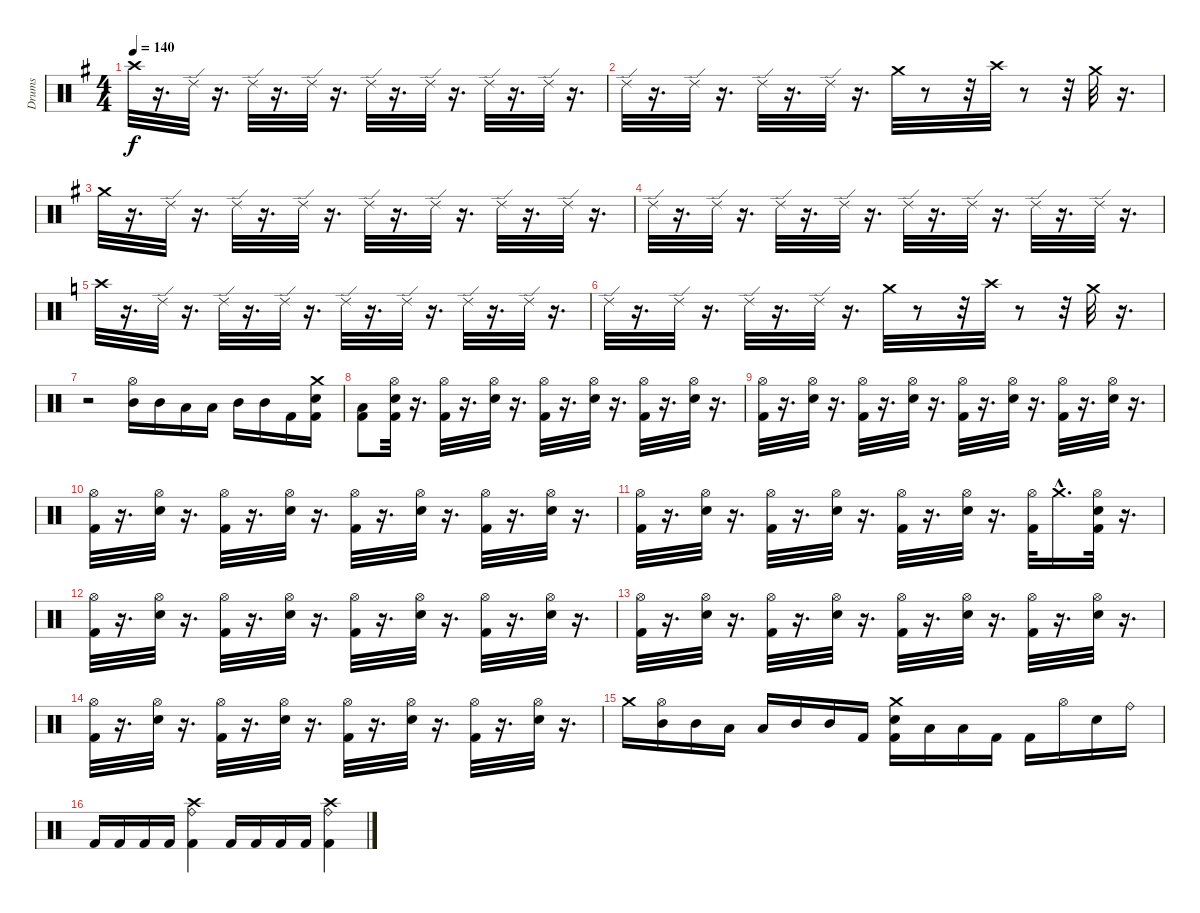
\track ("Drums" "Drums") {instrument percussion}
\staff {score}
\articulation defaults
\ts (4 4)
\tempo 140
\clef neutral
\ks eminor "Crash high (hit)".32{dy f}
r.16{d} "Ride (edge) 2".32 r.16{d} "Ride (edge) 2".32 r.16{d} "Ride (edge) 2".32 r.16{d} "Ride (edge) 2".32 r.16{d} "Ride (edge) 2".32 r.16{d} "Ride (edge) 2".32 r.16{d} "Ride (edge) 2".32 r.16{d} |
"Ride (edge) 2".32 r.16{d} "Ride (edge) 2".32 r.16{d} "Ride (edge) 2".32 r.16{d} "Ride (edge) 2".32 r.16{d} "Crash medium (hit)".32 r.8 r.32 "Crash high (hit)".32 r.8 r.32 "Crash medium (hit)".32 r.16{d} |
"Crash medium (hit)".32 r.16{d} "Ride (edge) 2".32 r.16{d} "Ride (edge) 2".32 r.16{d} "Ride (edge) 2".32 r.16{d} "Ride (edge) 2".32 r.16{d} "Ride (edge) 2".32 r.16{d} "Ride (edge) 2".32 r.16{d} "Ride (edge) 2".32 r.16{d} |
"Ride (edge) 2".32 r.16{d} "Ride (edge) 2".32 r.16{d} "Ride (edge) 2".32 r.16{d} "Ride (edge) 2".32 r.16{d} "Ride (edge) 2".32 r.16{d} "Ride (edge) 2".32 r.16{d} "Ride (edge) 2".32 r.16{d} "Ride (edge) 2".32 r.16{d} |
\ks c "Crash high (hit)".32
r.16{d} "Ride (edge) 2".32 r.16{d} "Ride (edge) 2".32 r.16{d} "Ride (edge) 2".32 r.16{d} "Ride (edge) 2".32 r.16{d} "Ride (edge) 2".32 r.16{d} "Ride (edge) 2".32 r.16{d} "Ride (edge) 2".32 r.16{d} |
"Ride (edge) 2".32 r.16{d} "Ride (edge) 2".32 r.16{d} "Ride (edge) 2".32 r.16{d} "Ride (edge) 2".32 r.16{d} "Crash medium (hit)".32 r.8 r.32 "Crash high (hit)".32 r.8 r.32 "Crash medium (hit)".32 r.16{d} |
r.2 ("Hi-Hat (open)" "Mid Tom (hit)").16 "Mid Tom (hit)".16 "Low Tom (hit)".16 "Low Tom (hit)".16 "Mid Tom (hit)".16 "Mid Tom (hit)".16 "Kick (hit) 2".16 ("Crash medium (hit)" "Electric Snare (hit)" "Kick (hit) 2").16 |
("Kick (hit) 2" "Low Tom (hit)").8 ("Hi-Hat (open)" "Kick (hit) 2" "Electric Snare (hit)").32 r.16{d} ("Hi-Hat (open)" "Kick (hit) 2").32 r.16{d} ("Hi-Hat (open)" "Electric Snare (hit)").32 r.16{d} ("Hi-Hat (open)" "Kick (hit) 2").32 r.16{d} ("Hi-Hat (open)" "Electric Snare (hit)").32 r.16{d} ("Hi-Hat (open)" "Kick (hit) 2").32 r.16{d} ("Hi-Hat (open)" "Electric Snare (hit)").32 r.16{d} |
("Hi-Hat (open)" "Kick (hit) 2").32 r.16{d} ("Hi-Hat (open)" "Electric Snare (hit)").32 r.16{d} ("Hi-Hat (open)" "Kick (hit) 2").32 r.16{d} ("Hi-Hat (open)" "Electric Snare (hit)").32 r.16{d} ("Hi-Hat (open)" "Kick (hit) 2").32 r.16{d} ("Hi-Hat (open)" "Electric Snare (hit)").32 r.16{d} ("Hi-Hat (open)" "Kick (hit) 2").32 r.16{d} ("Hi-Hat (open)" "Electric Snare (hit)").32 r.16{d} |
("Hi-Hat (open)" "Kick (hit) 2").32 r.16{d} ("Hi-Hat (open)" "Electric Snare (hit)").32 r.16{d} ("Hi-Hat (open)" "Kick (hit) 2").32 r.16{d} ("Hi-Hat (open)" "Electric Snare (hit)").32 r.16{d} ("Hi-Hat (open)" "Kick (hit) 2").32 r.16{d} ("Hi-Hat (open)" "Electric Snare (hit)").32 r.16{d} ("Hi-Hat (open)" "Kick (hit) 2").32 r.16{d} ("Hi-Hat (open)" "Electric Snare (hit)").32 r.16{d} |
("Hi-Hat (open)" "Kick (hit) 2").32 r.16{d} ("Hi-Hat (open)" "Electric Snare (hit)").32 r.16{d} ("Hi-Hat (open)" "Kick (hit) 2").32 r.16{d} ("Hi-Hat (open)" "Electric Snare (hit)").32 r.16{d} ("Hi-Hat (open)" "Kick (hit) 2").32 r.16{d} ("Hi-Hat (open)" "Electric Snare (hit)").32 r.16{d} ("Hi-Hat (open)" "Kick (hit) 2").32 "Crash medium (hit)"{hac}.16{d} ("Hi-Hat (open)" "Kick (hit) 2" "Electric Snare (hit)").32 r.16{d} |
("Hi-Hat (open)" "Kick (hit) 2").32 r.16{d} ("Hi-Hat (open)" "Electric Snare (hit)").32 r.16{d} ("Hi-Hat (open)" "Kick (hit) 2").32 r.16{d} ("Hi-Hat (open)" "Electric Snare (hit)").32 r.16{d} ("Hi-Hat (open)" "Kick (hit) 2").32 r.16{d} ("Hi-Hat (open)" "Electric Snare (hit)").32 r.16{d} ("Hi-Hat (open)" "Kick (hit) 2").32 r.16{d} ("Hi-Hat (open)" "Electric Snare (hit)").32 r.16{d} |
("Hi-Hat (open)" "Kick (hit) 2").32 r.16{d} ("Hi-Hat (open)" "Electric Snare (hit)").32 r.16{d} ("Hi-Hat (open)" "Kick (hit) 2").32 r.16{d} ("Hi-Hat (open)" "Electric Snare (hit)").32 r.16{d} ("Hi-Hat (open)" "Kick (hit) 2").32 r.16{d} ("Hi-Hat (open)" "Electric Snare (hit)").32 r.16{d} ("Hi-Hat (open)" "Kick (hit) 2").32 r.16{d} ("Hi-Hat (open)" "Electric Snare (hit)").32 r.16{d} |
("Hi-Hat (open)" "Kick (hit) 2").32 r.16{d} ("Hi-Hat (open)" "Electric Snare (hit)").32 r.16{d} ("Hi-Hat (open)" "Kick (hit) 2").32 r.16{d} ("Hi-Hat (open)" "Electric Snare (hit)").32 r.16{d} ("Hi-Hat (open)" "Kick (hit) 2").32 r.16{d} ("Hi-Hat (open)" "Electric Snare (hit)").32 r.16{d} ("Hi-Hat (open)" "Kick (hit) 2").32 r.16{d} ("Hi-Hat (open)" "Electric Snare (hit)").32 r.16{d} |
"Crash medium (hit)".16 ("Hi-Hat (open)" "Mid Tom (hit)").16 "Mid Tom (hit)".16 "Low Tom (hit)".16 "Low Tom (hit)".16 "Mid Tom (hit)".16 "Mid Tom (hit)".16 "Kick (hit) 2".16 ("Crash medium (hit)" "Electric Snare (hit)" "Kick (hit) 2").16 "Low Tom (hit)".16 "Low Tom (hit)".16 "Kick (hit) 2".16 "Kick (hit) 2".16 "Hi-Hat (open)".16 "Electric Snare (hit)".16 "Ride (bell)".16 |
"Kick (hit) 2".16 "Kick (hit) 2".16 "Kick (hit) 2".16 "Kick (hit) 2".16 ("Crash high (hit)" "Ride (bell)" "Kick (hit) 2").4 "Kick (hit) 2".16 "Kick (hit) 2".16 "Kick (hit) 2".16 "Kick (hit) 2".16 ("Crash high (hit)" "Ride (bell)" "Kick (hit) 2").4
